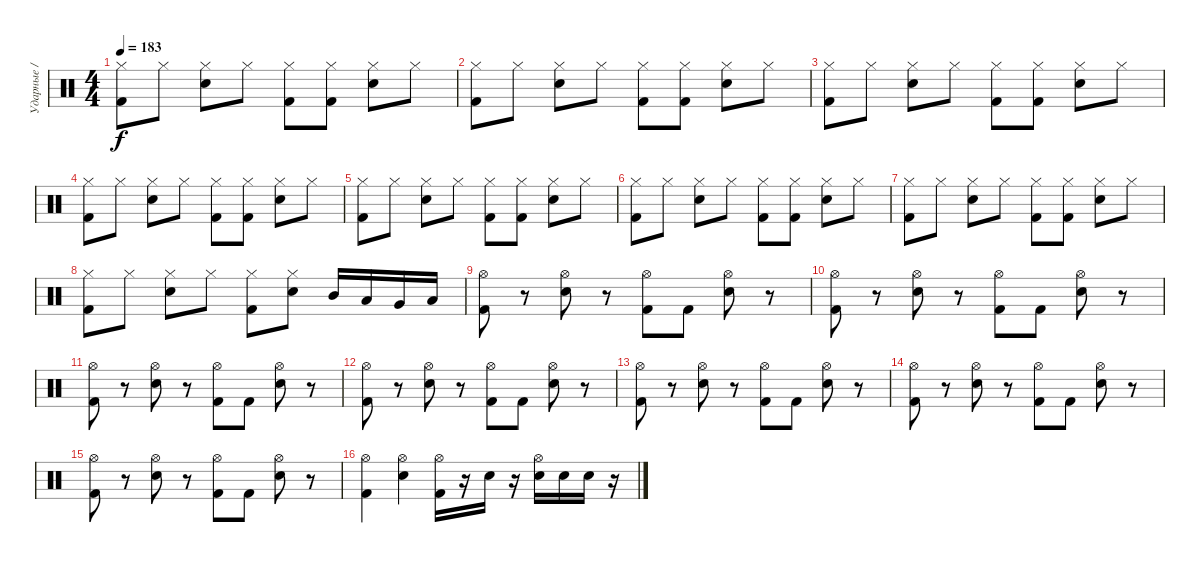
\track ("Ударные / Drums" "Ударные / ") {instrument percussion}
\staff {score}
\articulation defaults
\ts (4 4)
\tempo 183
\clef neutral
\ks c
("Hi-Hat (closed)" "Kick (hit) 2").8{dy f} "Hi-Hat (closed)".8 ("Hi-Hat (closed)" "Snare (hit) 2").8 "Hi-Hat (closed)".8 ("Hi-Hat (closed)" "Kick (hit) 2").8 ("Hi-Hat (closed)" "Kick (hit) 2").8 ("Hi-Hat (closed)" "Snare (hit) 2").8 "Hi-Hat (closed)".8 |
("Hi-Hat (closed)" "Kick (hit) 2").8 "Hi-Hat (closed)".8 ("Hi-Hat (closed)" "Snare (hit) 2").8 "Hi-Hat (closed)".8 ("Hi-Hat (closed)" "Kick (hit) 2").8 ("Hi-Hat (closed)" "Kick (hit) 2").8 ("Hi-Hat (closed)" "Snare (hit) 2").8 "Hi-Hat (closed)".8 |
("Hi-Hat (closed)" "Kick (hit) 2").8 "Hi-Hat (closed)".8 ("Hi-Hat (closed)" "Snare (hit) 2").8 "Hi-Hat (closed)".8 ("Hi-Hat (closed)" "Kick (hit) 2").8 ("Hi-Hat (closed)" "Kick (hit) 2").8 ("Hi-Hat (closed)" "Snare (hit) 2").8 "Hi-Hat (closed)".8 |
("Hi-Hat (closed)" "Kick (hit) 2").8 "Hi-Hat (closed)".8 ("Hi-Hat (closed)" "Snare (hit) 2").8 "Hi-Hat (closed)".8 ("Hi-Hat (closed)" "Kick (hit) 2").8 ("Hi-Hat (closed)" "Kick (hit) 2").8 ("Hi-Hat (closed)" "Snare (hit) 2").8 "Hi-Hat (closed)".8 |
("Hi-Hat (closed)" "Kick (hit) 2").8 "Hi-Hat (closed)".8 ("Hi-Hat (closed)" "Snare (hit) 2").8 "Hi-Hat (closed)".8 ("Hi-Hat (closed)" "Kick (hit) 2").8 ("Hi-Hat (closed)" "Kick (hit) 2").8 ("Hi-Hat (closed)" "Snare (hit) 2").8 "Hi-Hat (closed)".8 |
("Hi-Hat (closed)" "Kick (hit) 2").8 "Hi-Hat (closed)".8 ("Hi-Hat (closed)" "Snare (hit) 2").8 "Hi-Hat (closed)".8 ("Hi-Hat (closed)" "Kick (hit) 2").8 ("Hi-Hat (closed)" "Kick (hit) 2").8 ("Hi-Hat (closed)" "Snare (hit) 2").8 "Hi-Hat (closed)".8 |
("Hi-Hat (closed)" "Kick (hit) 2").8 "Hi-Hat (closed)".8 ("Hi-Hat (closed)" "Snare (hit) 2").8 "Hi-Hat (closed)".8 ("Hi-Hat (closed)" "Kick (hit) 2").8 ("Hi-Hat (closed)" "Kick (hit) 2").8 ("Hi-Hat (closed)" "Snare (hit) 2").8 "Hi-Hat (closed)".8 |
("Hi-Hat (closed)" "Kick (hit) 2").8 "Hi-Hat (closed)".8 ("Hi-Hat (closed)" "Snare (hit) 2").8 "Hi-Hat (closed)".8 ("Hi-Hat (closed)" "Kick (hit) 2").8 ("Hi-Hat (closed)" "Snare (hit) 2").8 "Mid Tom (hit)".16 "Low Tom (hit)".16 "Very Low Tom (hit)".16 "Low Floor Tom (hit)".16 |
("Hi-Hat (open)" "Kick (hit) 2").8 r.8 ("Hi-Hat (open)" "Snare (hit) 2").8 r.8 ("Hi-Hat (open)" "Kick (hit) 2").8 "Kick (hit) 2".8 ("Hi-Hat (open)" "Snare (hit) 2").8 r.8 |
("Hi-Hat (open)" "Kick (hit) 2").8 r.8 ("Hi-Hat (open)" "Snare (hit) 2").8 r.8 ("Hi-Hat (open)" "Kick (hit) 2").8 "Kick (hit) 2".8 ("Hi-Hat (open)" "Snare (hit) 2").8 r.8 |
("Hi-Hat (open)" "Kick (hit) 2").8 r.8 ("Hi-Hat (open)" "Snare (hit) 2").8 r.8 ("Hi-Hat (open)" "Kick (hit) 2").8 "Kick (hit) 2".8 ("Hi-Hat (open)" "Snare (hit) 2").8 r.8 |
("Hi-Hat (open)" "Kick (hit) 2").8 r.8 ("Hi-Hat (open)" "Snare (hit) 2").8 r.8 ("Hi-Hat (open)" "Kick (hit) 2").8 "Kick (hit) 2".8 ("Hi-Hat (open)" "Snare (hit) 2").8 r.8 |
("Hi-Hat (open)" "Kick (hit) 2").8 r.8 ("Hi-Hat (open)" "Snare (hit) 2").8 r.8 ("Hi-Hat (open)" "Kick (hit) 2").8 "Kick (hit) 2".8 ("Hi-Hat (open)" "Snare (hit) 2").8 r.8 |
("Hi-Hat (open)" "Kick (hit) 2").8 r.8 ("Hi-Hat (open)" "Snare (hit) 2").8 r.8 ("Hi-Hat (open)" "Kick (hit) 2").8 "Kick (hit) 2".8 ("Hi-Hat (open)" "Snare (hit) 2").8 r.8 |
("Hi-Hat (open)" "Kick (hit) 2").8 r.8 ("Hi-Hat (open)" "Snare (hit) 2").8 r.8 ("Hi-Hat (open)" "Kick (hit) 2").8 "Kick (hit) 2".8 ("Hi-Hat (open)" "Snare (hit) 2").8 r.8 |
("Hi-Hat (open)" "Kick (hit) 2").4 ("Hi-Hat (open)" "Snare (hit) 2").4 ("Hi-Hat (open)" "Kick (hit) 2").16 r.16 "Snare (hit) 2".16 r.16 ("Hi-Hat (open)" "Snare (hit) 2").16 "Snare (hit) 2".16 "Snare (hit) 2".16 r.16
